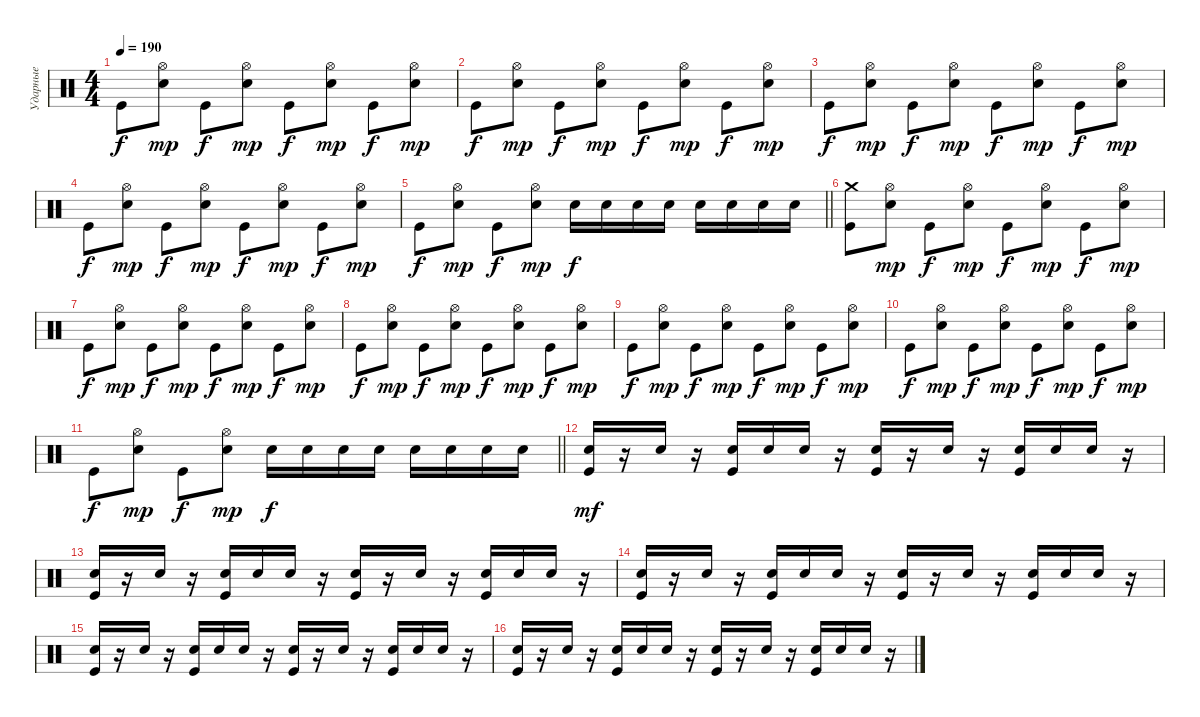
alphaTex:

\track ("Ударные" "Ударные") {instrument percussion}
\staff {score}
\articulation defaults
\ts (4 4)
\tempo 190
\clef neutral
\ks c "Kick (hit)".8{dy f}
("Electric Snare (hit)" "Hi-Hat (open)").8{dy mp} "Kick (hit)".8{dy f} ("Electric Snare (hit)" "Hi-Hat (open)").8{dy mp} "Kick (hit)".8{dy f} ("Electric Snare (hit)" "Hi-Hat (open)").8{dy mp} "Kick (hit)".8{dy f} ("Electric Snare (hit)" "Hi-Hat (open)").8{dy mp} |
"Kick (hit)".8{dy f} ("Electric Snare (hit)" "Hi-Hat (open)").8{dy mp} "Kick (hit)".8{dy f} ("Electric Snare (hit)" "Hi-Hat (open)").8{dy mp} "Kick (hit)".8{dy f} ("Electric Snare (hit)" "Hi-Hat (open)").8{dy mp} "Kick (hit)".8{dy f} ("Electric Snare (hit)" "Hi-Hat (open)").8{dy mp} |
"Kick (hit)".8{dy f} ("Electric Snare (hit)" "Hi-Hat (open)").8{dy mp} "Kick (hit)".8{dy f} ("Electric Snare (hit)" "Hi-Hat (open)").8{dy mp} "Kick (hit)".8{dy f} ("Electric Snare (hit)" "Hi-Hat (open)").8{dy mp} "Kick (hit)".8{dy f} ("Electric Snare (hit)" "Hi-Hat (open)").8{dy mp} |
"Kick (hit)".8{dy f} ("Electric Snare (hit)" "Hi-Hat (open)").8{dy mp} "Kick (hit)".8{dy f} ("Electric Snare (hit)" "Hi-Hat (open)").8{dy mp} "Kick (hit)".8{dy f} ("Electric Snare (hit)" "Hi-Hat (open)").8{dy mp} "Kick (hit)".8{dy f} ("Electric Snare (hit)" "Hi-Hat (open)").8{dy mp} |
\barLineRight lightlight "Kick (hit)".8{dy f}
("Electric Snare (hit)" "Hi-Hat (open)").8{dy mp} "Kick (hit)".8{dy f} ("Electric Snare (hit)" "Hi-Hat (open)").8{dy mp} "Electric Snare (hit)".16{dy f} "Electric Snare (hit)".16 "Electric Snare (hit)".16 "Electric Snare (hit)".16 "Electric Snare (hit)".16 "Electric Snare (hit)".16 "Electric Snare (hit)".16 "Electric Snare (hit)".16 |
("Kick (hit)" "Crash medium (hit)").8 ("Electric Snare (hit)" "Hi-Hat (open)").8{dy mp} "Kick (hit)".8{dy f} ("Electric Snare (hit)" "Hi-Hat (open)").8{dy mp} "Kick (hit)".8{dy f} ("Electric Snare (hit)" "Hi-Hat (open)").8{dy mp} "Kick (hit)".8{dy f} ("Electric Snare (hit)" "Hi-Hat (open)").8{dy mp} |
"Kick (hit)".8{dy f} ("Electric Snare (hit)" "Hi-Hat (open)").8{dy mp} "Kick (hit)".8{dy f} ("Electric Snare (hit)" "Hi-Hat (open)").8{dy mp} "Kick (hit)".8{dy f} ("Electric Snare (hit)" "Hi-Hat (open)").8{dy mp} "Kick (hit)".8{dy f} ("Electric Snare (hit)" "Hi-Hat (open)").8{dy mp} |
"Kick (hit)".8{dy f} ("Electric Snare (hit)" "Hi-Hat (open)").8{dy mp} "Kick (hit)".8{dy f} ("Electric Snare (hit)" "Hi-Hat (open)").8{dy mp} "Kick (hit)".8{dy f} ("Electric Snare (hit)" "Hi-Hat (open)").8{dy mp} "Kick (hit)".8{dy f} ("Electric Snare (hit)" "Hi-Hat (open)").8{dy mp} |
"Kick (hit)".8{dy f} ("Electric Snare (hit)" "Hi-Hat (open)").8{dy mp} "Kick (hit)".8{dy f} ("Electric Snare (hit)" "Hi-Hat (open)").8{dy mp} "Kick (hit)".8{dy f} ("Electric Snare (hit)" "Hi-Hat (open)").8{dy mp} "Kick (hit)".8{dy f} ("Electric Snare (hit)" "Hi-Hat (open)").8{dy mp} |
"Kick (hit)".8{dy f} ("Electric Snare (hit)" "Hi-Hat (open)").8{dy mp} "Kick (hit)".8{dy f} ("Electric Snare (hit)" "Hi-Hat (open)").8{dy mp} "Kick (hit)".8{dy f} ("Electric Snare (hit)" "Hi-Hat (open)").8{dy mp} "Kick (hit)".8{dy f} ("Electric Snare (hit)" "Hi-Hat (open)").8{dy mp} |
\barLineRight lightlight "Kick (hit)".8{dy f}
("Electric Snare (hit)" "Hi-Hat (open)").8{dy mp} "Kick (hit)".8{dy f} ("Electric Snare (hit)" "Hi-Hat (open)").8{dy mp} "Electric Snare (hit)".16{dy f} "Electric Snare (hit)".16 "Electric Snare (hit)".16 "Electric Snare (hit)".16 "Electric Snare (hit)".16 "Electric Snare (hit)".16 "Electric Snare (hit)".16 "Electric Snare (hit)".16 |
("Electric Snare (hit)" "Kick (hit)").16{dy mf} r.16 "Electric Snare (hit)".16 r.16 ("Electric Snare (hit)" "Kick (hit)").16 "Electric Snare (hit)".16 "Electric Snare (hit)".16 r.16 ("Electric Snare (hit)" "Kick (hit)").16 r.16 "Electric Snare (hit)".16 r.16 ("Electric Snare (hit)" "Kick (hit)").16 "Electric Snare (hit)".16 "Electric Snare (hit)".16 r.16 |
("Electric Snare (hit)" "Kick (hit)").16 r.16 "Electric Snare (hit)".16 r.16 ("Electric Snare (hit)" "Kick (hit)").16 "Electric Snare (hit)".16 "Electric Snare (hit)".16 r.16 ("Electric Snare (hit)" "Kick (hit)").16 r.16 "Electric Snare (hit)".16 r.16 ("Electric Snare (hit)" "Kick (hit)").16 "Electric Snare (hit)".16 "Electric Snare (hit)".16 r.16 |
("Electric Snare (hit)" "Kick (hit)").16 r.16 "Electric Snare (hit)".16 r.16 ("Electric Snare (hit)" "Kick (hit)").16 "Electric Snare (hit)".16 "Electric Snare (hit)".16 r.16 ("Electric Snare (hit)" "Kick (hit)").16 r.16 "Electric Snare (hit)".16 r.16 ("Electric Snare (hit)" "Kick (hit)").16 "Electric Snare (hit)".16 "Electric Snare (hit)".16 r.16 |
("Electric Snare (hit)" "Kick (hit)").16 r.16 "Electric Snare (hit)".16 r.16 ("Electric Snare (hit)" "Kick (hit)").16 "Electric Snare (hit)".16 "Electric Snare (hit)".16 r.16 ("Electric Snare (hit)" "Kick (hit)").16 r.16 "Electric Snare (hit)".16 r.16 ("Electric Snare (hit)" "Kick (hit)").16 "Electric Snare (hit)".16 "Electric Snare (hit)".16 r.16 |
("Electric Snare (hit)" "Kick (hit)").16 r.16 "Electric Snare (hit)".16 r.16 ("Electric Snare (hit)" "Kick (hit)").16 "Electric Snare (hit)".16 "Electric Snare (hit)".16 r.16 ("Electric Snare (hit)" "Kick (hit)").16 r.16 "Electric Snare (hit)".16 r.16 ("Electric Snare (hit)" "Kick (hit)").16 "Electric Snare (hit)".16 "Electric Snare (hit)".16 r.16
